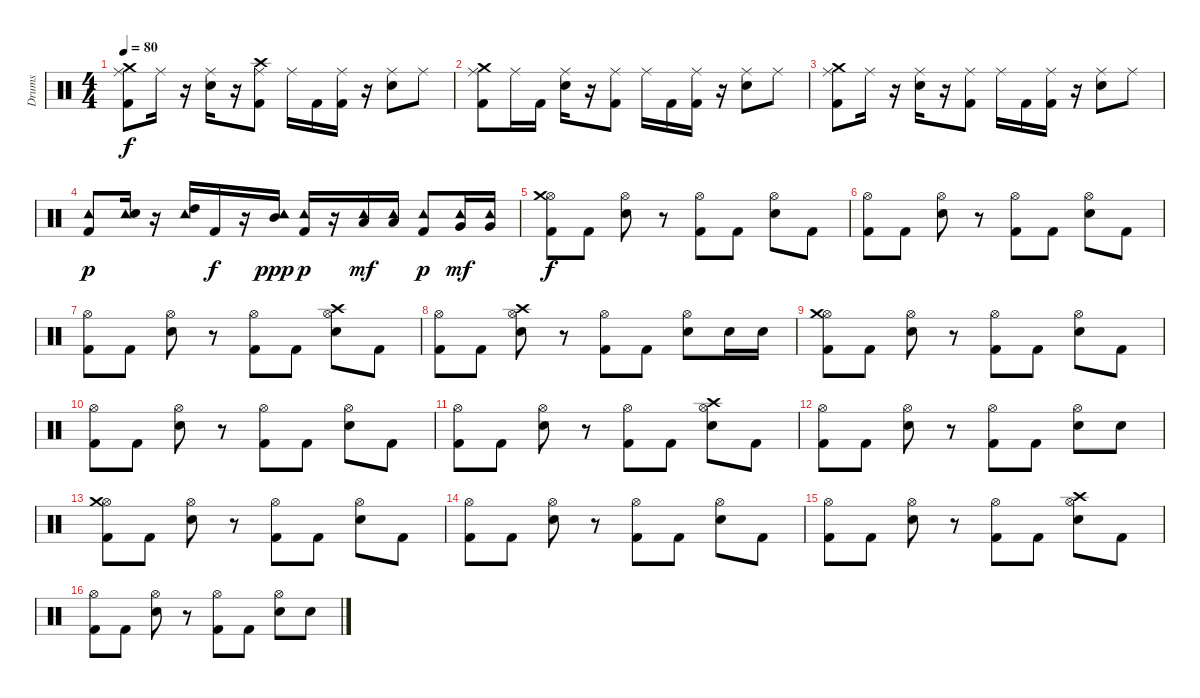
\track ("Drums" "Drums") {instrument percussion}
\staff {score}
\articulation defaults
\ts (4 4)
\tempo 80
\clef neutral
\ks c
("Ride (middle)" "Crash medium (hit)" "Kick (hit) 2").8{dy f} "Ride (middle)".16 r.16 ("Ride (middle)" "Electric Snare (hit)").16 r.16 ("Ride (middle)" "Crash high (hit)" "Kick (hit) 2").8 "Ride (middle)".16 "Kick (hit) 2".16 ("Ride (middle)" "Kick (hit) 2").16 r.16 ("Ride (middle)" "Electric Snare (hit)").8 "Ride (middle)".8 |
("Ride (middle)" "Crash medium (hit)" "Kick (hit) 2").8 "Ride (middle)".16 "Kick (hit) 2".16 ("Ride (middle)" "Electric Snare (hit)").16 r.16 ("Ride (middle)" "Kick (hit) 2").8 "Ride (middle)".16 "Kick (hit) 2".16 ("Ride (middle)" "Kick (hit) 2").16 r.16 ("Ride (middle)" "Electric Snare (hit)").8 "Ride (middle)".8 |
("Ride (middle)" "Crash medium (hit)" "Kick (hit) 2").8 "Ride (middle)".16 r.16 ("Ride (middle)" "Electric Snare (hit)").16 r.16 ("Ride (middle)" "Kick (hit) 2").8 "Ride (middle)".16 "Kick (hit) 2".16 ("Ride (middle)" "Kick (hit) 2").16 r.16 ("Ride (middle)" "Electric Snare (hit)").8 "Ride (middle)".8 |
("Tambourine (hit)" "Kick (hit) 2").8{dy p} ("Tambourine (hit)" "Electric Snare (hit)").16 r.16 ("Tambourine (hit)" "High Tom (hit)").16 "Kick (hit) 2".16{dy f} r.16 ("Tambourine (hit)" "Mid Tom (hit)").16{dy ppp} ("Tambourine (hit)" "Kick (hit) 2").16{dy p} r.16 ("Tambourine (hit)" "Low Tom (hit)").16{dy mf} ("Tambourine (hit)" "Low Tom (hit)").16 ("Tambourine (hit)" "Kick (hit) 2").8{dy p} ("Tambourine (hit)" "Very Low Tom (hit)").16{dy mf} ("Tambourine (hit)" "Very Low Tom (hit)").16 |
("Hi-Hat (open)" "Crash medium (hit)" "Kick (hit) 2").8{dy f} "Kick (hit) 2".8 ("Hi-Hat (open)" "Electric Snare (hit)").8 r.8 ("Hi-Hat (open)" "Kick (hit) 2").8 "Kick (hit) 2".8 ("Hi-Hat (open)" "Electric Snare (hit)").8 "Kick (hit) 2".8 |
("Hi-Hat (open)" "Kick (hit) 2").8 "Kick (hit) 2".8 ("Hi-Hat (open)" "Electric Snare (hit)").8 r.8 ("Hi-Hat (open)" "Kick (hit) 2").8 "Kick (hit) 2".8 ("Hi-Hat (open)" "Electric Snare (hit)").8 "Kick (hit) 2".8 |
("Hi-Hat (open)" "Kick (hit) 2").8 "Kick (hit) 2".8 ("Hi-Hat (open)" "Electric Snare (hit)").8 r.8 ("Hi-Hat (open)" "Kick (hit) 2").8 "Kick (hit) 2".8 ("Hi-Hat (open)" "Crash high (hit)" "Electric Snare (hit)").8 "Kick (hit) 2".8 |
("Hi-Hat (open)" "Kick (hit) 2").8 "Kick (hit) 2".8 ("Hi-Hat (open)" "Crash high (hit)" "Electric Snare (hit)").8 r.8 ("Hi-Hat (open)" "Kick (hit) 2").8 "Kick (hit) 2".8 ("Hi-Hat (open)" "Electric Snare (hit)").8 "Electric Snare (hit)".16 "Electric Snare (hit)".16 |
("Hi-Hat (open)" "Crash medium (hit)" "Kick (hit) 2").8 "Kick (hit) 2".8 ("Hi-Hat (open)" "Electric Snare (hit)").8 r.8 ("Hi-Hat (open)" "Kick (hit) 2").8 "Kick (hit) 2".8 ("Hi-Hat (open)" "Electric Snare (hit)").8 "Kick (hit) 2".8 |
("Hi-Hat (open)" "Kick (hit) 2").8 "Kick (hit) 2".8 ("Hi-Hat (open)" "Electric Snare (hit)").8 r.8 ("Hi-Hat (open)" "Kick (hit) 2").8 "Kick (hit) 2".8 ("Hi-Hat (open)" "Electric Snare (hit)").8 "Kick (hit) 2".8 |
("Hi-Hat (open)" "Kick (hit) 2").8 "Kick (hit) 2".8 ("Hi-Hat (open)" "Electric Snare (hit)").8 r.8 ("Hi-Hat (open)" "Kick (hit) 2").8 "Kick (hit) 2".8 ("Hi-Hat (open)" "Crash high (hit)" "Electric Snare (hit)").8 "Kick (hit) 2".8 |
("Hi-Hat (open)" "Kick (hit) 2").8 "Kick (hit) 2".8 ("Hi-Hat (open)" "Electric Snare (hit)").8 r.8 ("Hi-Hat (open)" "Kick (hit) 2").8 "Kick (hit) 2".8 ("Hi-Hat (open)" "Electric Snare (hit)").8 "Electric Snare (hit)".8 |
("Hi-Hat (open)" "Crash medium (hit)" "Kick (hit) 2").8 "Kick (hit) 2".8 ("Hi-Hat (open)" "Electric Snare (hit)").8 r.8 ("Hi-Hat (open)" "Kick (hit) 2").8 "Kick (hit) 2".8 ("Hi-Hat (open)" "Electric Snare (hit)").8 "Kick (hit) 2".8 |
("Hi-Hat (open)" "Kick (hit) 2").8 "Kick (hit) 2".8 ("Hi-Hat (open)" "Electric Snare (hit)").8 r.8 ("Hi-Hat (open)" "Kick (hit) 2").8 "Kick (hit) 2".8 ("Hi-Hat (open)" "Electric Snare (hit)").8 "Kick (hit) 2".8 |
("Hi-Hat (open)" "Kick (hit) 2").8 "Kick (hit) 2".8 ("Hi-Hat (open)" "Electric Snare (hit)").8 r.8 ("Hi-Hat (open)" "Kick (hit) 2").8 "Kick (hit) 2".8 ("Hi-Hat (open)" "Crash high (hit)" "Electric Snare (hit)").8 "Kick (hit) 2".8 |
("Hi-Hat (open)" "Kick (hit) 2").8 "Kick (hit) 2".8 ("Hi-Hat (open)" "Electric Snare (hit)").8 r.8 ("Hi-Hat (open)" "Kick (hit) 2").8 "Kick (hit) 2".8 ("Hi-Hat (open)" "Electric Snare (hit)").8 "Electric Snare (hit)".8
